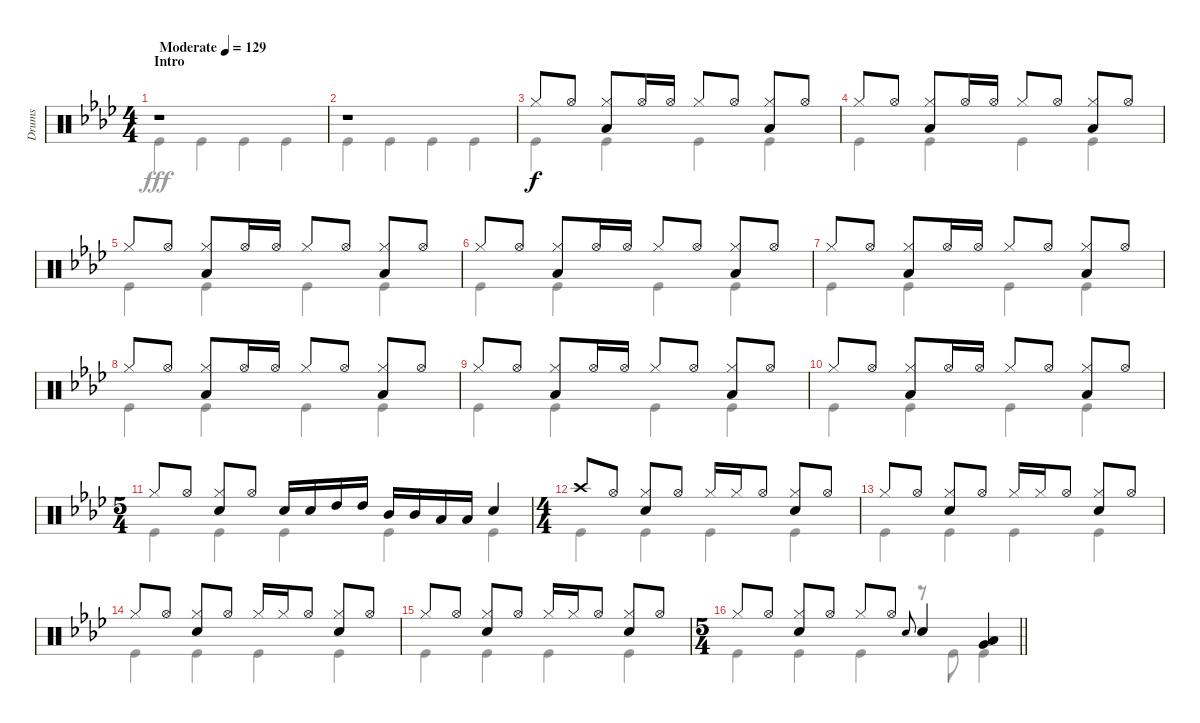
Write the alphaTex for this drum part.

\track ("Drums" "Drums") {instrument percussion}
\staff {score}
\articulation defaults
\voice
\ts (4 4)
\section ("" "Intro")
\tempo (129 "Moderate")
\clef neutral
\ks ab
r.1{dy f} |
r.1 |
"Hi-Hat (closed)".8 "Hi-Hat (open)".8 ("Hi-Hat (closed)" "Low Tom (hit)").8 "Hi-Hat (open)".16 "Hi-Hat (open)".16 "Hi-Hat (closed)".8 "Hi-Hat (open)".8 ("Hi-Hat (closed)" "Low Tom (hit)").8 "Hi-Hat (open)".8 |
"Hi-Hat (closed)".8 "Hi-Hat (open)".8 ("Hi-Hat (closed)" "Low Tom (hit)").8 "Hi-Hat (open)".16 "Hi-Hat (open)".16 "Hi-Hat (closed)".8 "Hi-Hat (open)".8 ("Hi-Hat (closed)" "Low Tom (hit)").8 "Hi-Hat (open)".8 |
"Hi-Hat (closed)".8 "Hi-Hat (open)".8 ("Hi-Hat (closed)" "Low Tom (hit)").8 "Hi-Hat (open)".16 "Hi-Hat (open)".16 "Hi-Hat (closed)".8 "Hi-Hat (open)".8 ("Hi-Hat (closed)" "Low Tom (hit)").8 "Hi-Hat (open)".8 |
"Hi-Hat (closed)".8 "Hi-Hat (open)".8 ("Hi-Hat (closed)" "Low Tom (hit)").8 "Hi-Hat (open)".16 "Hi-Hat (open)".16 "Hi-Hat (closed)".8 "Hi-Hat (open)".8 ("Hi-Hat (closed)" "Low Tom (hit)").8 "Hi-Hat (open)".8 |
"Hi-Hat (closed)".8 "Hi-Hat (open)".8 ("Hi-Hat (closed)" "Low Tom (hit)").8 "Hi-Hat (open)".16 "Hi-Hat (open)".16 "Hi-Hat (closed)".8 "Hi-Hat (open)".8 ("Hi-Hat (closed)" "Low Tom (hit)").8 "Hi-Hat (open)".8 |
"Hi-Hat (closed)".8 "Hi-Hat (open)".8 ("Hi-Hat (closed)" "Low Tom (hit)").8 "Hi-Hat (open)".16 "Hi-Hat (open)".16 "Hi-Hat (closed)".8 "Hi-Hat (open)".8 ("Hi-Hat (closed)" "Low Tom (hit)").8 "Hi-Hat (open)".8 |
"Hi-Hat (closed)".8 "Hi-Hat (open)".8 ("Hi-Hat (closed)" "Low Tom (hit)").8 "Hi-Hat (open)".16 "Hi-Hat (open)".16 "Hi-Hat (closed)".8 "Hi-Hat (open)".8 ("Hi-Hat (closed)" "Low Tom (hit)").8 "Hi-Hat (open)".8 |
"Hi-Hat (closed)".8 "Hi-Hat (open)".8 ("Hi-Hat (closed)" "Low Tom (hit)").8 "Hi-Hat (open)".16 "Hi-Hat (open)".16 "Hi-Hat (closed)".8 "Hi-Hat (open)".8 ("Hi-Hat (closed)" "Low Tom (hit)").8 "Hi-Hat (open)".8 |
\ts (5 4)
"Hi-Hat (closed)".8 "Hi-Hat (open)".8 ("Hi-Hat (closed)" "Snare (hit) 2").8 "Hi-Hat (open)".8 "Snare (hit) 2".16 "Snare (hit) 2".16 "High Tom (hit)".16 "High Tom (hit)".16 "Mid Tom (hit)".16 "Mid Tom (hit)".16 "Low Tom (hit)".16 "Low Tom (hit)".16 "Snare (hit) 2".4 |
\ts (4 4)
"Crash high (hit)".8 "Hi-Hat (open)".8 ("Hi-Hat (closed)" "Snare (hit) 2").8 "Hi-Hat (open)".8 "Hi-Hat (closed)".16 "Hi-Hat (closed)".16 "Hi-Hat (open)".8 ("Hi-Hat (closed)" "Snare (hit) 2").8 "Hi-Hat (open)".8 |
"Hi-Hat (closed)".8 "Hi-Hat (open)".8 ("Hi-Hat (closed)" "Snare (hit) 2").8 "Hi-Hat (open)".8 "Hi-Hat (closed)".16 "Hi-Hat (closed)".16 "Hi-Hat (open)".8 ("Hi-Hat (closed)" "Snare (hit) 2").8 "Hi-Hat (open)".8 |
"Hi-Hat (closed)".8 "Hi-Hat (open)".8 ("Hi-Hat (closed)" "Snare (hit) 2").8 "Hi-Hat (open)".8 "Hi-Hat (closed)".16 "Hi-Hat (closed)".16 "Hi-Hat (open)".8 ("Hi-Hat (closed)" "Snare (hit) 2").8 "Hi-Hat (open)".8 |
"Hi-Hat (closed)".8 "Hi-Hat (open)".8 ("Hi-Hat (closed)" "Snare (hit) 2").8 "Hi-Hat (open)".8 "Hi-Hat (closed)".16 "Hi-Hat (closed)".16 "Hi-Hat (open)".8 ("Hi-Hat (closed)" "Snare (hit) 2").8 "Hi-Hat (open)".8 |
\ts (5 4)
\barLineRight lightlight "Hi-Hat (closed)".8{beam merge} "Hi-Hat (open)".8{beam split}
("Hi-Hat (closed)" "Snare (hit) 2").8{beam merge} "Hi-Hat (open)".8{beam split} "Hi-Hat (closed)".8 "Hi-Hat (open)".8 "Snare (hit) 2".8{gr onbeat} "Snare (hit) 2".4 ("Low Tom (hit)" "Very Low Tom (hit)").4
\voice
\clef neutral
\ottava regular
\simile none
\ks ab "Kick (hit)".4{dy fff} "Kick (hit)".4 "Kick (hit)".4 "Kick (hit)".4
|
"Kick (hit)".4 "Kick (hit)".4 "Kick (hit)".4 "Kick (hit)".4 |
"Kick (hit)".4 "Kick (hit)".4 "Kick (hit)".4 "Kick (hit)".4 |
"Kick (hit)".4 "Kick (hit)".4 "Kick (hit)".4 "Kick (hit)".4 |
"Kick (hit)".4 "Kick (hit)".4 "Kick (hit)".4 "Kick (hit)".4 |
"Kick (hit)".4 "Kick (hit)".4 "Kick (hit)".4 "Kick (hit)".4 |
"Kick (hit)".4 "Kick (hit)".4 "Kick (hit)".4 "Kick (hit)".4 |
"Kick (hit)".4 "Kick (hit)".4 "Kick (hit)".4 "Kick (hit)".4 |
"Kick (hit)".4 "Kick (hit)".4 "Kick (hit)".4 "Kick (hit)".4 |
"Kick (hit)".4 "Kick (hit)".4 "Kick (hit)".4 "Kick (hit)".4 |
"Kick (hit)".4 "Kick (hit)".4 "Kick (hit)".4 "Kick (hit)".4 "Kick (hit)".4 |
"Kick (hit)".4 "Kick (hit)".4 "Kick (hit)".4 "Kick (hit)".4 |
"Kick (hit)".4 "Kick (hit)".4 "Kick (hit)".4 "Kick (hit)".4 |
"Kick (hit)".4 "Kick (hit)".4 "Kick (hit)".4 "Kick (hit)".4 |
"Kick (hit)".4 "Kick (hit)".4 "Kick (hit)".4 "Kick (hit)".4 |
\barLineRight lightlight "Kick (hit)".4 "Kick (hit)".4 "Kick (hit)".4
r.8 "Kick (hit)".8 "Kick (hit)".4
